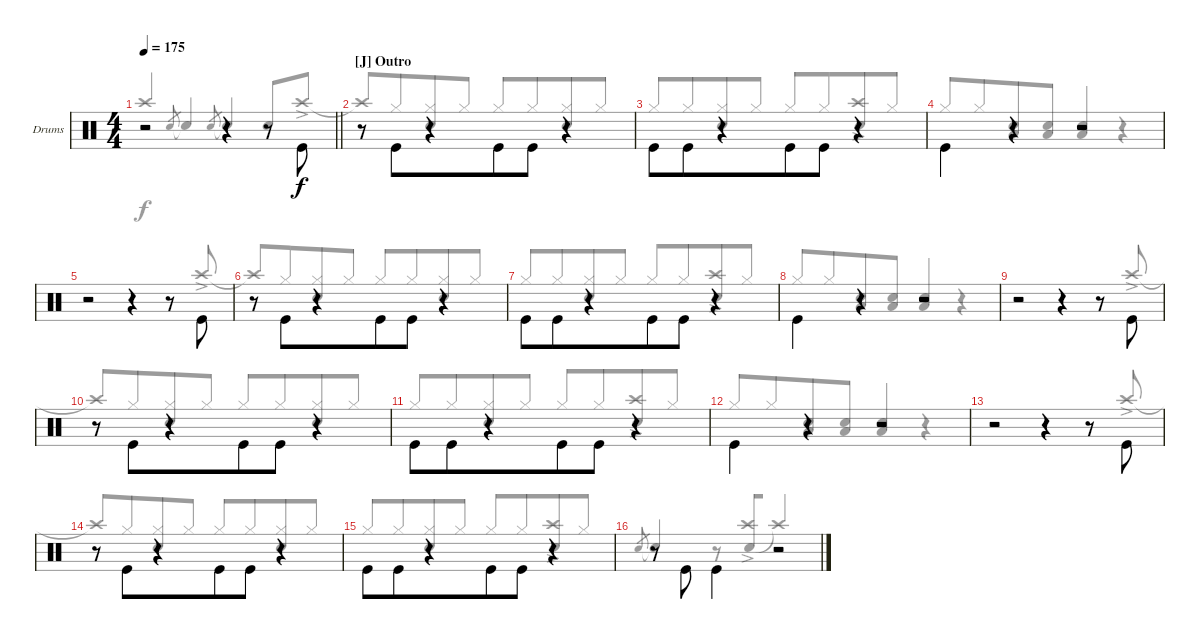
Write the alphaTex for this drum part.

\defaultSystemsLayout 4
\bracketExtendMode groupsimilarinstruments
\firstSystemTrackNameOrientation horizontal
\otherSystemsTrackNameOrientation horizontal
\track ("Drum" "Drums") {instrument percussion}
\staff {score}
\articulation defaults
\voice
\ts (4 4)
\tempo 175
\clef neutral
\scale
0.973518
\barLineRight lightlight
\ks c
r.2{dy f} r.4 r.8 "Kick (hit)".8{beam invert} |
\section ("J" "Outro")
\scale
1.02648 r.8 "Kick (hit)".8{beam invert beam merge} r.4{beam merge} "Kick (hit)".8 "Kick (hit)".8{beam invert beam merge} r.4{beam merge} |
\scale
0.973518 "Kick (hit)".8 "Kick (hit)".8{beam invert beam merge} r.4{beam merge} "Kick (hit)".8 "Kick (hit)".8{beam invert beam merge} r.4{beam merge} |
\scale
1.02648 "Kick (hit)".4{beam invert} r.4 r.2 |
\scale
0.973518 r.2 r.4 r.8 "Kick (hit)".8{beam invert} |
\scale
1.02648 r.8 "Kick (hit)".8{beam invert beam merge} r.4{beam merge} "Kick (hit)".8 "Kick (hit)".8{beam invert beam merge} r.4{beam merge} |
\scale
0.973518 "Kick (hit)".8 "Kick (hit)".8{beam invert beam merge} r.4{beam merge} "Kick (hit)".8 "Kick (hit)".8{beam invert beam merge} r.4{beam merge} |
\scale
1.02648 "Kick (hit)".4{beam invert} r.4 r.2 |
\scale
1.05675 r.2 r.4 r.8 "Kick (hit)".8{beam invert} |
\scale
0.943253 r.8 "Kick (hit)".8{beam invert beam merge} r.4{beam merge} "Kick (hit)".8 "Kick (hit)".8{beam invert beam merge} r.4{beam merge} |
\scale
1.02648 "Kick (hit)".8 "Kick (hit)".8{beam invert beam merge} r.4{beam merge} "Kick (hit)".8 "Kick (hit)".8{beam invert beam merge} r.4{beam merge} |
\scale
0.973518 "Kick (hit)".4{beam invert} r.4 r.2 |
\scale
1.02648 r.2 r.4 r.8 "Kick (hit)".8{beam invert} |
\scale
0.973518 r.8 "Kick (hit)".8{beam invert beam merge} r.4{beam merge} "Kick (hit)".8 "Kick (hit)".8{beam invert beam merge} r.4{beam merge} |
\scale
1.02648 "Kick (hit)".8 "Kick (hit)".8{beam invert beam merge} r.4{beam merge} "Kick (hit)".8 "Kick (hit)".8{beam invert beam merge} r.4{beam merge} |
\scale
0.973518 r.8 "Kick (hit)".8{beam invert} "Kick (hit)".4{beam invert} r.2
\voice
\clef neutral
\ottava regular
\simile none
\scale
0.973518
\barLineRight lightlight
\ks c "Crash high (hit)"{t}.4{dy f beam invert} "Snare (hit) 2".8{gr beam invert} "Snare (hit) 2"{t}.4{beam invert} "Snare (hit) 2".8{gr beam invert} "Snare (hit) 2"{t}.4{beam invert} "Snare (hit) 2".8{beam invert} "Crash high (hit)"{ac}.8
|
\scale
1.02648 "Crash high (hit)"{t}.8{beam invert beam merge} "Hi-Hat (closed)".8{beam merge} ("Hi-Hat (closed)" "Snare (hit) 2").8{beam merge} "Hi-Hat (closed)".8 "Hi-Hat (closed)".8{beam invert beam merge} "Hi-Hat (closed)".8{beam merge} ("Hi-Hat (closed)" "Snare (hit) 2").8{beam merge} "Hi-Hat (closed)".8 |
\scale
0.973518 "Hi-Hat (closed)".8{beam invert beam merge} "Hi-Hat (closed)".8{beam merge} ("Hi-Hat (closed)" "Snare (hit) 2").8{beam merge} "Hi-Hat (closed)".8 "Hi-Hat (closed)".8{beam invert beam merge} "Hi-Hat (closed)".8{beam merge} ("Snare (hit) 2" "Crash high (hit)"{ac}).8{beam merge} "Hi-Hat (closed)".8 |
\scale
1.02648 "Hi-Hat (closed)".8{beam invert beam merge} "Hi-Hat (closed)".8{beam merge} ("Snare (hit) 2" "Low Tom (hit)").8{beam merge} ("Snare (hit) 2" "Low Tom (hit)").8{beam merge} ("Snare (hit) 2" "Low Tom (hit)").4{beam invert beam merge} r.4 |
\scale
0.973518 r.2 r.4 r.8 "Crash high (hit)"{ac}.8{beam invert} |
\scale
1.02648 "Crash high (hit)"{t}.8{beam invert beam merge} "Hi-Hat (closed)".8{beam merge} ("Hi-Hat (closed)" "Snare (hit) 2").8{beam merge} "Hi-Hat (closed)".8 "Hi-Hat (closed)".8{beam invert beam merge} "Hi-Hat (closed)".8{beam merge} ("Hi-Hat (closed)" "Snare (hit) 2").8{beam merge} "Hi-Hat (closed)".8 |
\scale
0.973518 "Hi-Hat (closed)".8{beam invert beam merge} "Hi-Hat (closed)".8{beam merge} ("Hi-Hat (closed)" "Snare (hit) 2").8{beam merge} "Hi-Hat (closed)".8 "Hi-Hat (closed)".8{beam invert beam merge} "Hi-Hat (closed)".8{beam merge} ("Snare (hit) 2" "Crash high (hit)"{ac}).8{beam merge} "Hi-Hat (closed)".8 |
\scale
1.02648 "Hi-Hat (closed)".8{beam invert beam merge} "Hi-Hat (closed)".8{beam merge} ("Snare (hit) 2" "Low Tom (hit)").8{beam merge} ("Snare (hit) 2" "Low Tom (hit)").8{beam merge} ("Snare (hit) 2" "Low Tom (hit)").4{beam invert beam merge} r.4 |
\scale
1.05675 r.2 r.4 r.8 "Crash high (hit)"{ac}.8{beam invert} |
\scale
0.943253 "Crash high (hit)"{t}.8{beam invert beam merge} "Hi-Hat (closed)".8{beam merge} ("Hi-Hat (closed)" "Snare (hit) 2").8{beam merge} "Hi-Hat (closed)".8 "Hi-Hat (closed)".8{beam invert beam merge} "Hi-Hat (closed)".8{beam merge} ("Hi-Hat (closed)" "Snare (hit) 2").8{beam merge} "Hi-Hat (closed)".8 |
\scale
1.02648 "Hi-Hat (closed)".8{beam invert beam merge} "Hi-Hat (closed)".8{beam merge} ("Hi-Hat (closed)" "Snare (hit) 2").8{beam merge} "Hi-Hat (closed)".8 "Hi-Hat (closed)".8{beam invert beam merge} "Hi-Hat (closed)".8{beam merge} ("Snare (hit) 2" "Crash high (hit)"{ac}).8{beam merge} "Hi-Hat (closed)".8 |
\scale
0.973518 "Hi-Hat (closed)".8{beam invert beam merge} "Hi-Hat (closed)".8{beam merge} ("Snare (hit) 2" "Low Tom (hit)").8{beam merge} ("Snare (hit) 2" "Low Tom (hit)").8{beam merge} ("Snare (hit) 2" "Low Tom (hit)").4{beam invert beam merge} r.4 |
\scale
1.02648 r.2 r.4 r.8 "Crash high (hit)"{ac}.8{beam invert} |
\scale
0.973518 "Crash high (hit)"{t}.8{beam invert beam merge} "Hi-Hat (closed)".8{beam merge} ("Hi-Hat (closed)" "Snare (hit) 2").8{beam merge} "Hi-Hat (closed)".8 "Hi-Hat (closed)".8{beam invert beam merge} "Hi-Hat (closed)".8{beam merge} ("Hi-Hat (closed)" "Snare (hit) 2").8{beam merge} "Hi-Hat (closed)".8 |
\scale
1.02648 "Hi-Hat (closed)".8{beam invert beam merge} "Hi-Hat (closed)".8{beam merge} ("Hi-Hat (closed)" "Snare (hit) 2").8{beam merge} "Hi-Hat (closed)".8 "Hi-Hat (closed)".8{beam invert beam merge} "Hi-Hat (closed)".8{beam merge} ("Snare (hit) 2" "Crash high (hit)"{ac}).8{beam merge} "Hi-Hat (closed)".8 |
\scale
0.973518 "Snare (hit) 2".8{gr beam invert} "Snare (hit) 2"{t}.4{beam invert} r.8 ("Snare (hit) 2" "Crash high (hit)"{ac}).8{beam invert beam merge} "Crash high (hit)"{t}.2{beam invert}
